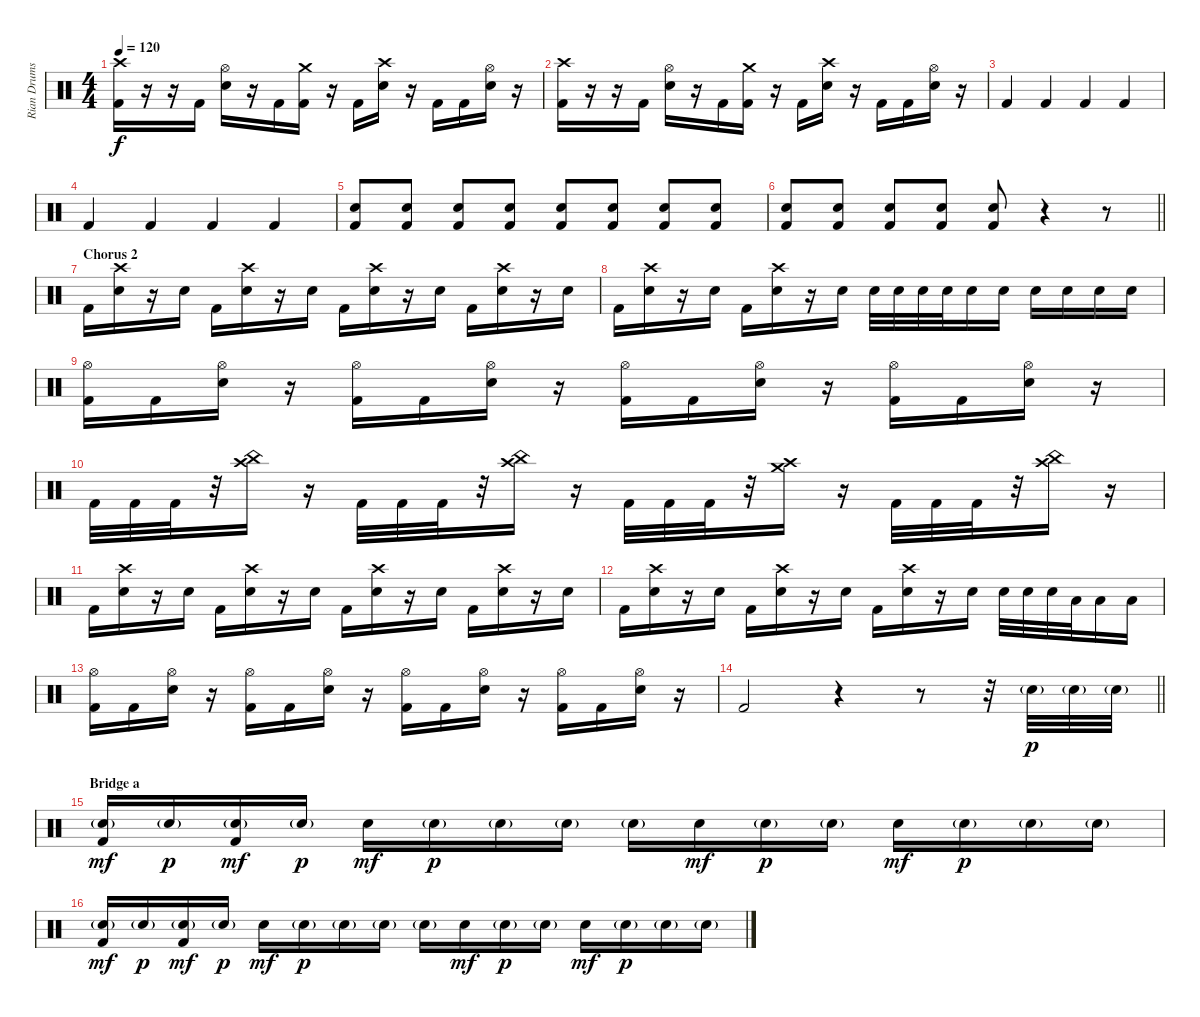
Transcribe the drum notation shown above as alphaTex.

\track ("Rian Drums" "Rian Drums") {instrument percussion}
\staff {score}
\articulation defaults
\ts (4 4)
\tempo 120
\clef neutral
\ks c
("Crash high (hit)" "Kick (hit) 2").16{dy f} r.16 r.16 "Kick (hit) 2".16 ("Hi-Hat (open)" "Electric Snare (hit)").16 r.16 "Kick (hit) 2".16 ("Crash medium (hit)" "Kick (hit) 2").16 r.16 "Kick (hit) 2".16 ("Crash high (hit)" "Electric Snare (hit)").16 r.16 "Kick (hit) 2".16 "Kick (hit) 2".16 ("Hi-Hat (open)" "Electric Snare (hit)").16 r.16 |
("Crash high (hit)" "Kick (hit) 2").16 r.16 r.16 "Kick (hit) 2".16 ("Hi-Hat (open)" "Electric Snare (hit)").16 r.16 "Kick (hit) 2".16 ("Crash medium (hit)" "Kick (hit) 2").16 r.16 "Kick (hit) 2".16 ("Crash high (hit)" "Electric Snare (hit)").16 r.16 "Kick (hit) 2".16 "Kick (hit) 2".16 ("Hi-Hat (open)" "Electric Snare (hit)").16 r.16 |
"Kick (hit) 2".4 "Kick (hit) 2".4 "Kick (hit) 2".4 "Kick (hit) 2".4 |
"Kick (hit) 2".4 "Kick (hit) 2".4 "Kick (hit) 2".4 "Kick (hit) 2".4 |
("Electric Snare (hit)" "Kick (hit) 2").8 ("Electric Snare (hit)" "Kick (hit) 2").8 ("Electric Snare (hit)" "Kick (hit) 2").8 ("Electric Snare (hit)" "Kick (hit) 2").8 ("Electric Snare (hit)" "Kick (hit) 2").8 ("Electric Snare (hit)" "Kick (hit) 2").8 ("Electric Snare (hit)" "Kick (hit) 2").8 ("Electric Snare (hit)" "Kick (hit) 2").8 |
\barLineRight lightlight
("Electric Snare (hit)" "Kick (hit) 2").8 ("Electric Snare (hit)" "Kick (hit) 2").8 ("Electric Snare (hit)" "Kick (hit) 2").8 ("Electric Snare (hit)" "Kick (hit) 2").8 ("Electric Snare (hit)" "Kick (hit) 2").8 r.4 r.8 |
\section ("" "Chorus 2")
"Kick (hit) 2".16 ("Crash high (hit)" "Electric Snare (hit)").16 r.16 "Electric Snare (hit)".16 "Kick (hit) 2".16 ("Crash high (hit)" "Electric Snare (hit)").16 r.16 "Electric Snare (hit)".16 "Kick (hit) 2".16 ("Crash high (hit)" "Electric Snare (hit)").16 r.16 "Electric Snare (hit)".16 "Kick (hit) 2".16 ("Crash high (hit)" "Electric Snare (hit)").16 r.16 "Electric Snare (hit)".16 |
"Kick (hit) 2".16 ("Crash high (hit)" "Electric Snare (hit)").16 r.16 "Electric Snare (hit)".16 "Kick (hit) 2".16 ("Crash high (hit)" "Electric Snare (hit)").16 r.16 "Electric Snare (hit)".16 "Electric Snare (hit)".32 "Electric Snare (hit)".32 "Electric Snare (hit)".32 "Electric Snare (hit)".32 "Electric Snare (hit)".16 "Electric Snare (hit)".16 "Electric Snare (hit)".16 "Electric Snare (hit)".16 "Electric Snare (hit)".16 "Electric Snare (hit)".16 |
("Hi-Hat (open)" "Kick (hit) 2").16 "Kick (hit) 2".16 ("Hi-Hat (open)" "Electric Snare (hit)").16 r.16 ("Hi-Hat (open)" "Kick (hit) 2").16 "Kick (hit) 2".16 ("Hi-Hat (open)" "Electric Snare (hit)").16 r.16 ("Hi-Hat (open)" "Kick (hit) 2").16 "Kick (hit) 2".16 ("Hi-Hat (open)" "Electric Snare (hit)").16 r.16 ("Hi-Hat (open)" "Kick (hit) 2").16 "Kick (hit) 2".16 ("Hi-Hat (open)" "Electric Snare (hit)").16 r.16 |
"Kick (hit) 2".32 "Kick (hit) 2".32 "Kick (hit) 2".32 r.32 ("Crash high (hit)" "China (hit)").16 r.16 "Kick (hit) 2".32 "Kick (hit) 2".32 "Kick (hit) 2".32 r.32 ("Crash high (hit)" "China (hit)").16 r.16 "Kick (hit) 2".32 "Kick (hit) 2".32 "Kick (hit) 2".32 r.32 ("Crash high (hit)" "Crash medium (hit)").16 r.16 "Kick (hit) 2".32 "Kick (hit) 2".32 "Kick (hit) 2".32 r.32 ("Crash high (hit)" "China (hit)").16 r.16 |
"Kick (hit) 2".16 ("Crash high (hit)" "Electric Snare (hit)").16 r.16 "Electric Snare (hit)".16 "Kick (hit) 2".16 ("Crash high (hit)" "Electric Snare (hit)").16 r.16 "Electric Snare (hit)".16 "Kick (hit) 2".16 ("Crash high (hit)" "Electric Snare (hit)").16 r.16 "Electric Snare (hit)".16 "Kick (hit) 2".16 ("Crash high (hit)" "Electric Snare (hit)").16 r.16 "Electric Snare (hit)".16 |
"Kick (hit) 2".16 ("Crash high (hit)" "Electric Snare (hit)").16 r.16 "Electric Snare (hit)".16 "Kick (hit) 2".16 ("Crash high (hit)" "Electric Snare (hit)").16 r.16 "Electric Snare (hit)".16 "Kick (hit) 2".16 ("Crash high (hit)" "Electric Snare (hit)").16 r.16 "Electric Snare (hit)".16 "Electric Snare (hit)".32 "Electric Snare (hit)".32 "Electric Snare (hit)".32 "Low Tom (hit)".32 "Low Tom (hit)".16 "Low Tom (hit)".16 |
("Hi-Hat (open)" "Kick (hit) 2").16 "Kick (hit) 2".16 ("Hi-Hat (open)" "Electric Snare (hit)").16 r.16 ("Hi-Hat (open)" "Kick (hit) 2").16 "Kick (hit) 2".16 ("Hi-Hat (open)" "Electric Snare (hit)").16 r.16 ("Hi-Hat (open)" "Kick (hit) 2").16 "Kick (hit) 2".16 ("Hi-Hat (open)" "Electric Snare (hit)").16 r.16 ("Hi-Hat (open)" "Kick (hit) 2").16 "Kick (hit) 2".16 ("Hi-Hat (open)" "Electric Snare (hit)").16 r.16 |
\barLineRight lightlight "Kick (hit) 2".2
r.4 r.8 r.32 "Electric Snare (hit)"{g}.32{dy p} "Electric Snare (hit)"{g}.32 "Electric Snare (hit)"{g}.32 |
\section ("" "Bridge a")
("Electric Snare (hit)"{g} "Kick (hit) 2").16{dy mf} "Electric Snare (hit)"{g}.16{dy p} ("Electric Snare (hit)"{g} "Kick (hit) 2").16{dy mf} "Electric Snare (hit)"{g}.16{dy p} "Electric Snare (hit)".16{dy mf} "Electric Snare (hit)"{g}.16{dy p} "Electric Snare (hit)"{g}.16 "Electric Snare (hit)"{g}.16 "Electric Snare (hit)"{g}.16 "Electric Snare (hit)".16{dy mf} "Electric Snare (hit)"{g}.16{dy p} "Electric Snare (hit)"{g}.16 "Electric Snare (hit)".16{dy mf} "Electric Snare (hit)"{g}.16{dy p} "Electric Snare (hit)"{g}.16 "Electric Snare (hit)"{g}.16 |
("Electric Snare (hit)"{g} "Kick (hit) 2").16{dy mf} "Electric Snare (hit)"{g}.16{dy p} ("Electric Snare (hit)"{g} "Kick (hit) 2").16{dy mf} "Electric Snare (hit)"{g}.16{dy p} "Electric Snare (hit)".16{dy mf} "Electric Snare (hit)"{g}.16{dy p} "Electric Snare (hit)"{g}.16 "Electric Snare (hit)"{g}.16 "Electric Snare (hit)"{g}.16 "Electric Snare (hit)".16{dy mf} "Electric Snare (hit)"{g}.16{dy p} "Electric Snare (hit)"{g}.16 "Electric Snare (hit)".16{dy mf} "Electric Snare (hit)"{g}.16{dy p} "Electric Snare (hit)"{g}.16 "Electric Snare (hit)"{g}.16
